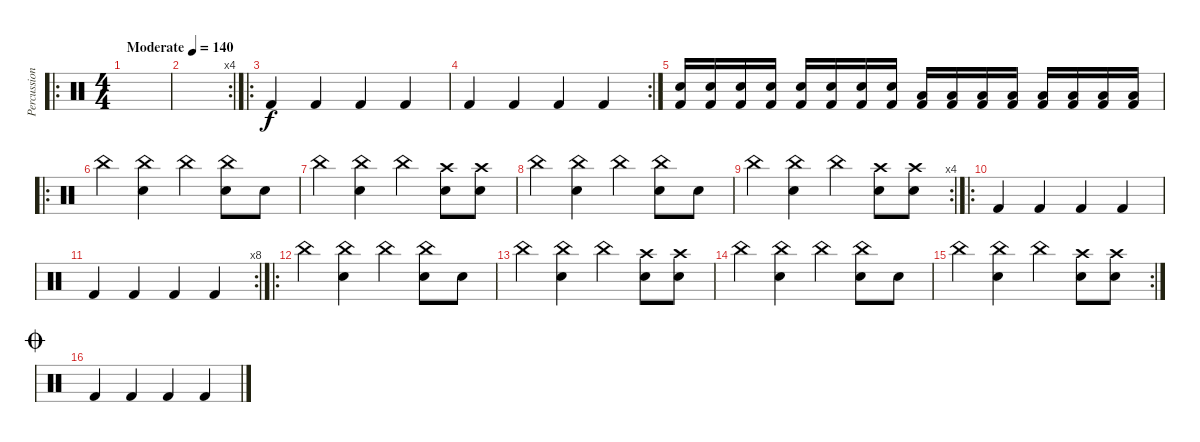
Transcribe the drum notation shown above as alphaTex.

\track ("Percussion" "Percussion") {instrument percussion}
\staff {score}
\articulation defaults
\ro
\ts (4 4)
\tempo (140 "Moderate")
\clef neutral
\ks c
|
\rc 4
|
\ro "Kick (hit) 2".4 "Kick (hit) 2".4 "Kick (hit) 2".4 "Kick (hit) 2".4
|
\rc 2 "Kick (hit) 2".4 "Kick (hit) 2".4 "Kick (hit) 2".4 "Kick (hit) 2".4
|
("Snare (hit) 2" "Kick (hit) 2").16 ("Snare (hit) 2" "Kick (hit) 2").16 ("Snare (hit) 2" "Kick (hit) 2").16 ("Snare (hit) 2" "Kick (hit) 2").16 ("Snare (hit) 2" "Kick (hit) 2").16 ("Snare (hit) 2" "Kick (hit) 2").16 ("Snare (hit) 2" "Kick (hit) 2").16 ("Snare (hit) 2" "Kick (hit) 2").16 ("Low Floor Tom (hit)" "Kick (hit) 2").16 ("Low Floor Tom (hit)" "Kick (hit) 2").16 ("Low Floor Tom (hit)" "Kick (hit) 2").16 ("Low Floor Tom (hit)" "Kick (hit) 2").16 ("Low Floor Tom (hit)" "Kick (hit) 2").16 ("Low Floor Tom (hit)" "Kick (hit) 2").16 ("Low Floor Tom (hit)" "Kick (hit) 2").16 ("Low Floor Tom (hit)" "Kick (hit) 2").16 |
\ro "China (hit)".4
("China (hit)" "Snare (hit) 2").4 "China (hit)".4 ("China (hit)" "Snare (hit) 2").8 "Snare (hit) 2".8 |
"China (hit)".4 ("China (hit)" "Snare (hit) 2").4 "China (hit)".4 ("Crash high (hit)" "Snare (hit) 2").8 ("Crash high (hit)" "Snare (hit) 2").8 |
"China (hit)".4 ("China (hit)" "Snare (hit) 2").4 "China (hit)".4 ("China (hit)" "Snare (hit) 2").8 "Snare (hit) 2".8 |
\rc 4 "China (hit)".4
("China (hit)" "Snare (hit) 2").4 "China (hit)".4 ("Crash high (hit)" "Snare (hit) 2").8 ("Crash high (hit)" "Snare (hit) 2").8 |
\ro "Kick (hit) 2".4 "Kick (hit) 2".4 "Kick (hit) 2".4 "Kick (hit) 2".4
|
\rc 8 "Kick (hit) 2".4 "Kick (hit) 2".4 "Kick (hit) 2".4 "Kick (hit) 2".4
|
\ro "China (hit)".4
("China (hit)" "Snare (hit) 2").4 "China (hit)".4 ("China (hit)" "Snare (hit) 2").8 "Snare (hit) 2".8 |
"China (hit)".4 ("China (hit)" "Snare (hit) 2").4 "China (hit)".4 ("Crash high (hit)" "Snare (hit) 2").8 ("Crash high (hit)" "Snare (hit) 2").8 |
"China (hit)".4 ("China (hit)" "Snare (hit) 2").4 "China (hit)".4 ("China (hit)" "Snare (hit) 2").8 "Snare (hit) 2".8 |
\rc 2 "China (hit)".4
("China (hit)" "Snare (hit) 2").4 "China (hit)".4 ("Crash high (hit)" "Snare (hit) 2").8 ("Crash high (hit)" "Snare (hit) 2").8 |
\jump coda "Kick (hit) 2".4 "Kick (hit) 2".4 "Kick (hit) 2".4 "Kick (hit) 2".4
